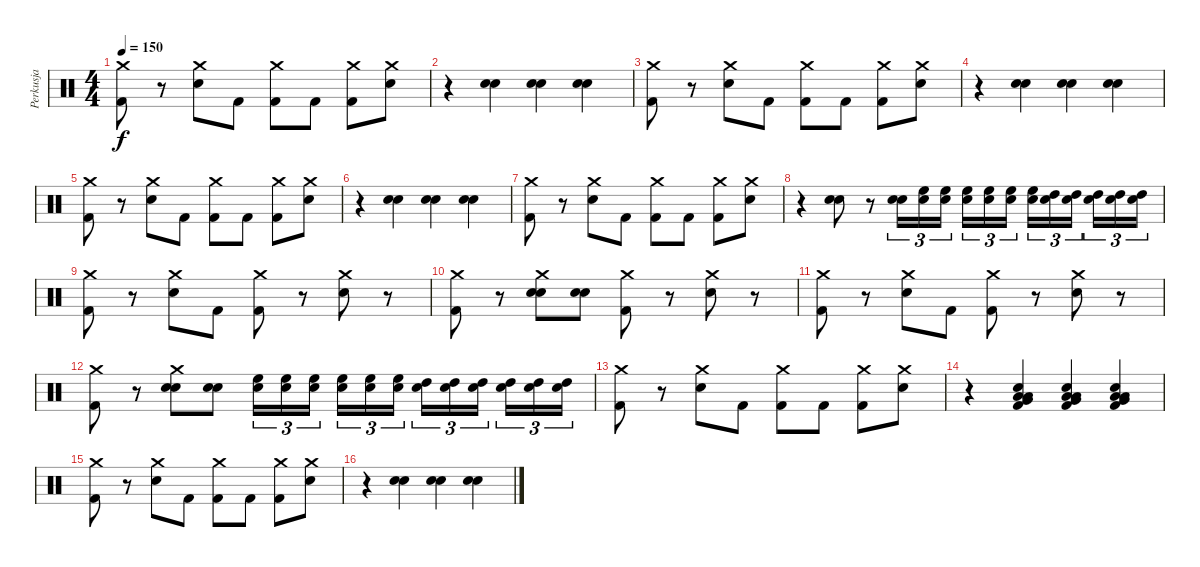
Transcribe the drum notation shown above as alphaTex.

\track ("Perkusja" "Perkusja") {instrument percussion}
\staff {score}
\articulation defaults
\ts (4 4)
\tempo 150
\clef neutral
\ks c
("Crash medium (hit)" "Kick (hit) 2").8{dy f} r.8 ("Crash medium (hit)" "Snare (hit) 2").8 "Kick (hit) 2".8 ("Crash medium (hit)" "Kick (hit) 2").8 "Kick (hit) 2".8 ("Crash medium (hit)" "Kick (hit) 2").8 ("Crash medium (hit)" "Snare (hit) 2").8 |
r.4 ("Hand Clap (hit)" "Hand Clap (hit)").4{bd 60} ("Hand Clap (hit)" "Hand Clap (hit)").4{bd 60} ("Hand Clap (hit)" "Hand Clap (hit)").4{bd 60} |
("Crash medium (hit)" "Kick (hit) 2").8 r.8 ("Crash medium (hit)" "Snare (hit) 2").8 "Kick (hit) 2".8 ("Crash medium (hit)" "Kick (hit) 2").8 "Kick (hit) 2".8 ("Crash medium (hit)" "Kick (hit) 2").8 ("Crash medium (hit)" "Snare (hit) 2").8 |
r.4 ("Hand Clap (hit)" "Hand Clap (hit)").4{bd 60} ("Hand Clap (hit)" "Hand Clap (hit)").4{bd 60} ("Hand Clap (hit)" "Hand Clap (hit)").4{bd 60} |
("Crash medium (hit)" "Kick (hit) 2").8 r.8 ("Crash medium (hit)" "Snare (hit) 2").8 "Kick (hit) 2".8 ("Crash medium (hit)" "Kick (hit) 2").8 "Kick (hit) 2".8 ("Crash medium (hit)" "Kick (hit) 2").8 ("Crash medium (hit)" "Snare (hit) 2").8 |
r.4 ("Hand Clap (hit)" "Hand Clap (hit)").4{bd 60} ("Hand Clap (hit)" "Hand Clap (hit)").4{bd 60} ("Hand Clap (hit)" "Hand Clap (hit)").4{bd 60} |
("Crash medium (hit)" "Kick (hit) 2").8 r.8 ("Crash medium (hit)" "Snare (hit) 2").8 "Kick (hit) 2".8 ("Crash medium (hit)" "Kick (hit) 2").8 "Kick (hit) 2".8 ("Crash medium (hit)" "Kick (hit) 2").8 ("Crash medium (hit)" "Snare (hit) 2").8 |
r.4 ("Hand Clap (hit)" "Hand Clap (hit)").8 r.8 ("Hand Clap (hit)" "Hand Clap (hit)").16{tu (3 2)} ("Electric Snare (hit)" "High Floor Tom (hit)").16{tu (3 2)} ("Electric Snare (hit)" "High Floor Tom (hit)").16{tu (3 2)} ("Electric Snare (hit)" "High Floor Tom (hit)").16{tu (3 2)} ("Electric Snare (hit)" "High Floor Tom (hit)").16{tu (3 2)} ("Electric Snare (hit)" "High Floor Tom (hit)").16{tu (3 2)} ("Electric Snare (hit)" "High Floor Tom (hit)").16{tu (3 2)} ("High Tom (hit)" "Electric Snare (hit)").16{tu (3 2)} ("High Tom (hit)" "Electric Snare (hit)").16{tu (3 2)} ("High Tom (hit)" "Electric Snare (hit)").16{tu (3 2)} ("High Tom (hit)" "Electric Snare (hit)").16{tu (3 2)} ("High Tom (hit)" "Electric Snare (hit)").16{tu (3 2)} |
("Crash medium (hit)" "Kick (hit) 2").8 r.8 ("Crash medium (hit)" "Snare (hit) 2").8 "Kick (hit) 2".8 ("Crash medium (hit)" "Kick (hit) 2").8 r.8 ("Crash medium (hit)" "Snare (hit) 2").8 r.8 |
("Crash medium (hit)" "Kick (hit) 2").8 r.8 ("Crash medium (hit)" "Snare (hit) 2" "Electric Snare (hit)").8 ("Snare (hit) 2" "Electric Snare (hit)").8 ("Crash medium (hit)" "Kick (hit) 2").8 r.8 ("Crash medium (hit)" "Snare (hit) 2").8 r.8 |
("Crash medium (hit)" "Kick (hit) 2").8 r.8 ("Crash medium (hit)" "Snare (hit) 2").8 "Kick (hit) 2".8 ("Crash medium (hit)" "Kick (hit) 2").8 r.8 ("Crash medium (hit)" "Snare (hit) 2").8 r.8 |
("Crash medium (hit)" "Kick (hit) 2").8 r.8 ("Crash medium (hit)" "Snare (hit) 2" "Electric Snare (hit)").8 ("Snare (hit) 2" "Electric Snare (hit)").8 ("Electric Snare (hit)" "High Floor Tom (hit)").16{tu (3 2)} ("Electric Snare (hit)" "High Floor Tom (hit)").16{tu (3 2)} ("Electric Snare (hit)" "High Floor Tom (hit)").16{tu (3 2)} ("Electric Snare (hit)" "High Floor Tom (hit)").16{tu (3 2)} ("Electric Snare (hit)" "High Floor Tom (hit)").16{tu (3 2)} ("Electric Snare (hit)" "High Floor Tom (hit)").16{tu (3 2)} ("Electric Snare (hit)" "High Tom (hit)").16{tu (3 2)} ("Electric Snare (hit)" "High Tom (hit)").16{tu (3 2)} ("Electric Snare (hit)" "High Tom (hit)").16{tu (3 2)} ("Electric Snare (hit)" "High Tom (hit)").16{tu (3 2)} ("Electric Snare (hit)" "High Tom (hit)").16{tu (3 2)} ("Electric Snare (hit)" "High Tom (hit)").16{tu (3 2)} |
("Crash medium (hit)" "Kick (hit) 2").8 r.8 ("Crash medium (hit)" "Snare (hit) 2").8 "Kick (hit) 2".8 ("Crash medium (hit)" "Kick (hit) 2").8 "Kick (hit) 2".8 ("Crash medium (hit)" "Kick (hit) 2").8 ("Crash medium (hit)" "Snare (hit) 2").8 |
r.4 ("Low Floor Tom (hit)" "Very Low Tom (hit)" "Low Tom (hit)" "Kick (hit) 2" "Snare (hit) 2").4 ("Low Floor Tom (hit)" "Very Low Tom (hit)" "Low Tom (hit)" "Kick (hit) 2" "Snare (hit) 2").4 ("Low Floor Tom (hit)" "Very Low Tom (hit)" "Low Tom (hit)" "Kick (hit) 2" "Snare (hit) 2").4 |
("Crash medium (hit)" "Kick (hit) 2").8 r.8 ("Crash medium (hit)" "Snare (hit) 2").8 "Kick (hit) 2".8 ("Crash medium (hit)" "Kick (hit) 2").8 "Kick (hit) 2".8 ("Crash medium (hit)" "Kick (hit) 2").8 ("Crash medium (hit)" "Snare (hit) 2").8 |
r.4 ("Hand Clap (hit)" "Hand Clap (hit)").4{bd 60} ("Hand Clap (hit)" "Hand Clap (hit)").4{bd 60} ("Hand Clap (hit)" "Hand Clap (hit)").4{bd 60}
